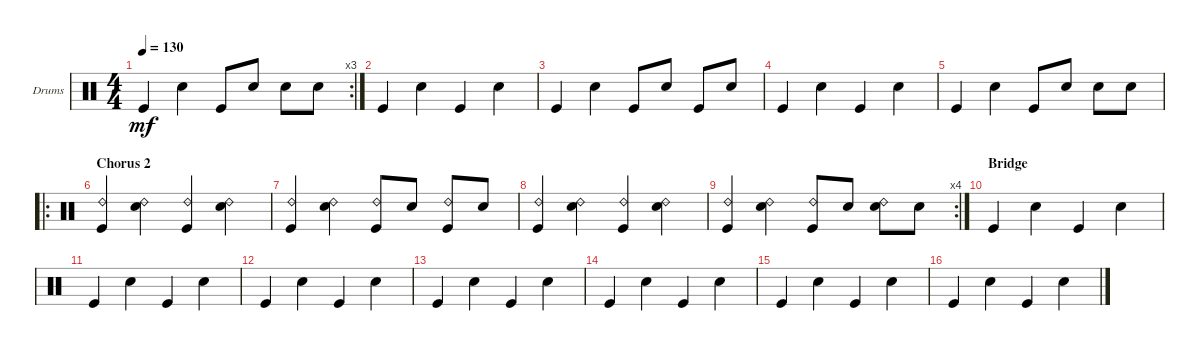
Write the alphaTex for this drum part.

\defaultSystemsLayout 4
\bracketExtendMode groupsimilarinstruments
\firstSystemTrackNameOrientation horizontal
\otherSystemsTrackNameOrientation horizontal
\chordDiagramsInScore
\track ("Drumkit" "Drums") {instrument percussion}
\staff {score}
\articulation defaults
\rc 3
\ts (4 4)
\tempo 130
\clef neutral
\ks c "Kick (hit)".4{dy mf} "Snare (hit) 2".4 "Kick (hit)".8 "Snare (hit) 2".8 "Snare (hit) 2".8 "Snare (hit) 2".8
|
"Kick (hit)".4 "Snare (hit) 2".4 "Kick (hit)".4 "Snare (hit) 2".4 |
"Kick (hit)".4 "Snare (hit) 2".4 "Kick (hit)".8 "Snare (hit) 2".8 "Kick (hit)".8 "Snare (hit) 2".8 |
"Kick (hit)".4 "Snare (hit) 2".4 "Kick (hit)".4 "Snare (hit) 2".4 |
"Kick (hit)".4 "Snare (hit) 2".4 "Kick (hit)".8 "Snare (hit) 2".8 "Snare (hit) 2".8 "Snare (hit) 2".8 |
\ro
\section ("" "Chorus 2")
("Kick (hit)" "Ride (bell) 2").4 ("Snare (hit) 2" "Ride (bell) 2").4 ("Kick (hit)" "Ride (bell) 2").4 ("Snare (hit) 2" "Ride (bell) 2").4 |
("Kick (hit)" "Ride (bell) 2").4 ("Snare (hit) 2" "Ride (bell) 2").4 ("Kick (hit)" "Ride (bell) 2").8 "Snare (hit) 2".8 ("Kick (hit)" "Ride (bell) 2").8 "Snare (hit) 2".8 |
("Kick (hit)" "Ride (bell) 2").4 ("Snare (hit) 2" "Ride (bell) 2").4 ("Kick (hit)" "Ride (bell) 2").4 ("Snare (hit) 2" "Ride (bell) 2").4 |
\rc 4
("Kick (hit)" "Ride (bell) 2").4 ("Snare (hit) 2" "Ride (bell) 2").4 ("Kick (hit)" "Ride (bell) 2").8 "Snare (hit) 2".8 ("Snare (hit) 2" "Ride (bell) 2").8 "Snare (hit) 2".8 |
\section ("" "Bridge")
"Kick (hit)".4 "Snare (hit) 2".4 "Kick (hit)".4 "Snare (hit) 2".4 |
"Kick (hit)".4 "Snare (hit) 2".4 "Kick (hit)".4 "Snare (hit) 2".4 |
"Kick (hit)".4 "Snare (hit) 2".4 "Kick (hit)".4 "Snare (hit) 2".4 |
"Kick (hit)".4 "Snare (hit) 2".4 "Kick (hit)".4 "Snare (hit) 2".4 |
"Kick (hit)".4 "Snare (hit) 2".4 "Kick (hit)".4 "Snare (hit) 2".4 |
"Kick (hit)".4 "Snare (hit) 2".4 "Kick (hit)".4 "Snare (hit) 2".4 |
"Kick (hit)".4 "Snare (hit) 2".4 "Kick (hit)".4 "Snare (hit) 2".4
